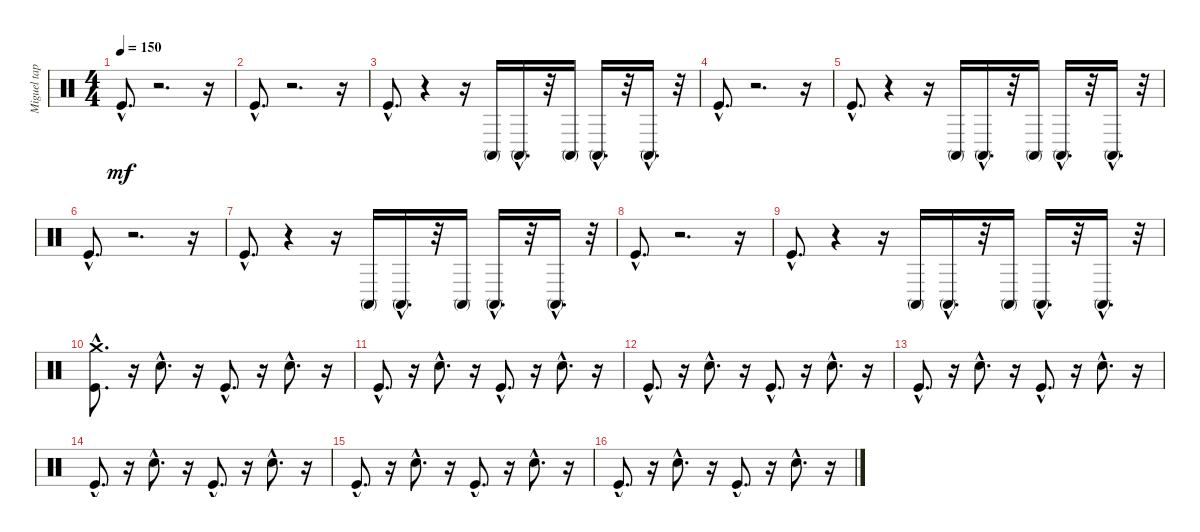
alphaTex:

\track ("Miguel tapia" "Miguel tap") {instrument percussion}
\staff {score}
\articulation defaults
\ts (4 4)
\tempo 150
\clef neutral
\ks c "Kick (hit)"{hac}.8{d dy mf}
r.2{d} r.16 |
"Kick (hit)"{hac}.8{d} r.2{d} r.16 |
"Kick (hit)"{hac}.8{d} r.4 r.16 "Conga high (mute)".16 "Conga high (mute)"{hac}.16{d} r.32 "Conga high (mute)".16 "Conga high (mute)"{hac}.16{d} r.32 "Conga high (mute)"{hac}.16{d} r.32 |
"Kick (hit)"{hac}.8{d} r.2{d} r.16 |
"Kick (hit)"{hac}.8{d} r.4 r.16 "Conga high (mute)".16 "Conga high (mute)"{hac}.16{d} r.32 "Conga high (mute)".16 "Conga high (mute)"{hac}.16{d} r.32 "Conga high (mute)"{hac}.16{d} r.32 |
"Kick (hit)"{hac}.8{d} r.2{d} r.16 |
"Kick (hit)"{hac}.8{d} r.4 r.16 "Conga high (mute)".16 "Conga high (mute)"{hac}.16{d} r.32 "Conga high (mute)".16 "Conga high (mute)"{hac}.16{d} r.32 "Conga high (mute)"{hac}.16{d} r.32 |
"Kick (hit)"{hac}.8{d} r.2{d} r.16 |
"Kick (hit)"{hac}.8{d} r.4 r.16 "Conga high (mute)".16 "Conga high (mute)"{hac}.16{d} r.32 "Conga high (mute)".16 "Conga high (mute)"{hac}.16{d} r.32 "Conga high (mute)"{hac}.16{d} r.32 |
("Crash medium (hit)"{hac} "Kick (hit)"{hac}).8{d} r.16 "Electric Snare (hit)"{hac}.8{d} r.16 "Kick (hit)"{hac}.8{d} r.16 "Electric Snare (hit)"{hac}.8{d} r.16 |
"Kick (hit)"{hac}.8{d} r.16 "Electric Snare (hit)"{hac}.8{d} r.16 "Kick (hit)"{hac}.8{d} r.16 "Electric Snare (hit)"{hac}.8{d} r.16 |
"Kick (hit)"{hac}.8{d} r.16 "Electric Snare (hit)"{hac}.8{d} r.16 "Kick (hit)"{hac}.8{d} r.16 "Electric Snare (hit)"{hac}.8{d} r.16 |
"Kick (hit)"{hac}.8{d} r.16 "Electric Snare (hit)"{hac}.8{d} r.16 "Kick (hit)"{hac}.8{d} r.16 "Electric Snare (hit)"{hac}.8{d} r.16 |
"Kick (hit)"{hac}.8{d} r.16 "Electric Snare (hit)"{hac}.8{d} r.16 "Kick (hit)"{hac}.8{d} r.16 "Electric Snare (hit)"{hac}.8{d} r.16 |
"Kick (hit)"{hac}.8{d} r.16 "Electric Snare (hit)"{hac}.8{d} r.16 "Kick (hit)"{hac}.8{d} r.16 "Electric Snare (hit)"{hac}.8{d} r.16 |
"Kick (hit)"{hac}.8{d} r.16 "Electric Snare (hit)"{hac}.8{d} r.16 "Kick (hit)"{hac}.8{d} r.16 "Electric Snare (hit)"{hac}.8{d} r.16
